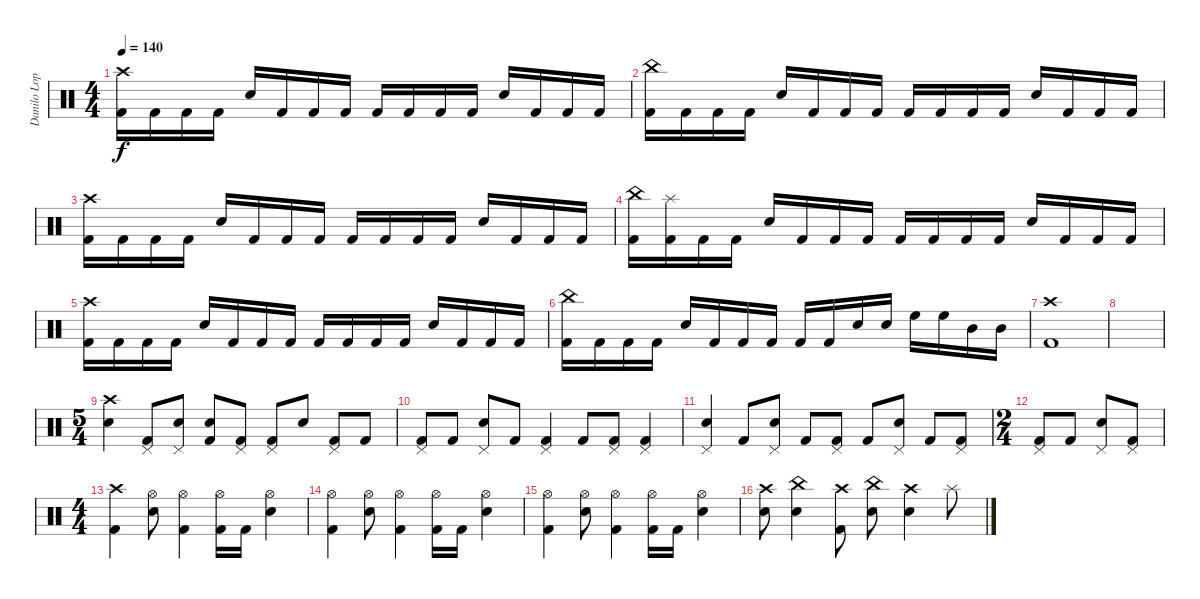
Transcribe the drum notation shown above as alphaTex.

\track ("Danilo Lopes" "Danilo Lop") {instrument percussion}
\staff {score}
\articulation defaults
\ts (4 4)
\tempo 140
\clef neutral
\ks c
("Crash high (hit)" "Kick (hit) 2").16{dy f} "Kick (hit) 2".16 "Kick (hit) 2".16 "Kick (hit) 2".16 "Snare (hit) 2".16 "Kick (hit) 2".16 "Kick (hit) 2".16 "Kick (hit) 2".16 "Kick (hit) 2".16 "Kick (hit) 2".16 "Kick (hit) 2".16 "Kick (hit) 2".16 "Snare (hit) 2".16 "Kick (hit) 2".16 "Kick (hit) 2".16 "Kick (hit) 2".16 |
("China (hit)" "Kick (hit) 2").16 "Kick (hit) 2".16 "Kick (hit) 2".16 "Kick (hit) 2".16 "Snare (hit) 2".16 "Kick (hit) 2".16 "Kick (hit) 2".16 "Kick (hit) 2".16 "Kick (hit) 2".16 "Kick (hit) 2".16 "Kick (hit) 2".16 "Kick (hit) 2".16 "Snare (hit) 2".16 "Kick (hit) 2".16 "Kick (hit) 2".16 "Kick (hit) 2".16 |
("Crash high (hit)" "Kick (hit) 2").16 "Kick (hit) 2".16 "Kick (hit) 2".16 "Kick (hit) 2".16 "Snare (hit) 2".16 "Kick (hit) 2".16 "Kick (hit) 2".16 "Kick (hit) 2".16 "Kick (hit) 2".16 "Kick (hit) 2".16 "Kick (hit) 2".16 "Kick (hit) 2".16 "Snare (hit) 2".16 "Kick (hit) 2".16 "Kick (hit) 2".16 "Kick (hit) 2".16 |
("China (hit)" "Kick (hit) 2").16 ("Splash (hit)" "Kick (hit) 2").16 "Kick (hit) 2".16 "Kick (hit) 2".16 "Snare (hit) 2".16 "Kick (hit) 2".16 "Kick (hit) 2".16 "Kick (hit) 2".16 "Kick (hit) 2".16 "Kick (hit) 2".16 "Kick (hit) 2".16 "Kick (hit) 2".16 "Snare (hit) 2".16 "Kick (hit) 2".16 "Kick (hit) 2".16 "Kick (hit) 2".16 |
("Crash high (hit)" "Kick (hit) 2").16 "Kick (hit) 2".16 "Kick (hit) 2".16 "Kick (hit) 2".16 "Snare (hit) 2".16 "Kick (hit) 2".16 "Kick (hit) 2".16 "Kick (hit) 2".16 "Kick (hit) 2".16 "Kick (hit) 2".16 "Kick (hit) 2".16 "Kick (hit) 2".16 "Snare (hit) 2".16 "Kick (hit) 2".16 "Kick (hit) 2".16 "Kick (hit) 2".16 |
("China (hit)" "Kick (hit) 2").16 "Kick (hit) 2".16 "Kick (hit) 2".16 "Kick (hit) 2".16 "Snare (hit) 2".16 "Kick (hit) 2".16 "Kick (hit) 2".16 "Kick (hit) 2".16 "Kick (hit) 2".16 "Kick (hit) 2".16 "Snare (hit) 2".16 "Snare (hit) 2".16 "High Floor Tom (hit)".16 "High Floor Tom (hit)".16 "Mid Tom (hit)".16 "Mid Tom (hit)".16 |
("Crash high (hit)" "Kick (hit) 2").1 |
|
\ts (5 4)
("Crash high (hit)" "Snare (hit) 2").4 ("Kick (hit) 2" "Pedal Hi-Hat (hit)").8 ("Snare (hit) 2" "Pedal Hi-Hat (hit)").8 ("Kick (hit) 2" "Snare (hit)").8 ("Kick (hit) 2" "Pedal Hi-Hat (hit)").8 ("Kick (hit) 2" "Pedal Hi-Hat (hit)").8 "Snare (hit) 2".8 ("Kick (hit) 2" "Pedal Hi-Hat (hit)").8 "Kick (hit) 2".8 |
("Kick (hit) 2" "Pedal Hi-Hat (hit)").8 "Kick (hit) 2".8 ("Snare (hit) 2" "Pedal Hi-Hat (hit)").8 "Kick (hit) 2".8 ("Kick (hit) 2" "Pedal Hi-Hat (hit)").4 "Kick (hit) 2".8 ("Kick (hit) 2" "Pedal Hi-Hat (hit)").8 ("Kick (hit) 2" "Pedal Hi-Hat (hit)").4 |
("Snare (hit) 2" "Pedal Hi-Hat (hit)").4 "Kick (hit) 2".8 ("Snare (hit) 2" "Pedal Hi-Hat (hit)").8 "Kick (hit) 2".8 ("Kick (hit) 2" "Pedal Hi-Hat (hit)").8 "Kick (hit) 2".8 ("Snare (hit) 2" "Pedal Hi-Hat (hit)").8 "Kick (hit) 2".8 ("Kick (hit) 2" "Pedal Hi-Hat (hit)").8 |
\ts (2 4)
("Kick (hit) 2" "Pedal Hi-Hat (hit)").8 "Kick (hit) 2".8 ("Snare (hit) 2" "Pedal Hi-Hat (hit)").8 ("Kick (hit) 2" "Pedal Hi-Hat (hit)").8 |
\ts (4 4)
("Crash high (hit)" "Kick (hit) 2").4 ("Hi-Hat (open)" "Snare (hit) 2").8 ("Hi-Hat (open)" "Kick (hit) 2").4 ("Hi-Hat (open)" "Kick (hit) 2").16 "Kick (hit) 2".16 ("Hi-Hat (open)" "Snare (hit) 2").4 |
("Hi-Hat (open)" "Kick (hit) 2").4 ("Hi-Hat (open)" "Snare (hit) 2").8 ("Hi-Hat (open)" "Kick (hit) 2").4 ("Hi-Hat (open)" "Kick (hit) 2").16 "Kick (hit) 2".16 ("Hi-Hat (open)" "Snare (hit) 2").4 |
("Hi-Hat (open)" "Kick (hit) 2").4 ("Hi-Hat (open)" "Snare (hit) 2").8 ("Hi-Hat (open)" "Kick (hit) 2").4 ("Hi-Hat (open)" "Kick (hit) 2").16 "Kick (hit) 2".16 ("Hi-Hat (open)" "Snare (hit) 2").4 |
("Snare (hit) 2" "Crash high (hit)").8 ("Snare (hit) 2" "China (hit)").4 ("Kick (hit) 2" "Crash high (hit)").8 ("Snare (hit) 2" "China (hit)").8 ("Snare (hit) 2" "Crash high (hit)").4 "Splash (hit)".8
